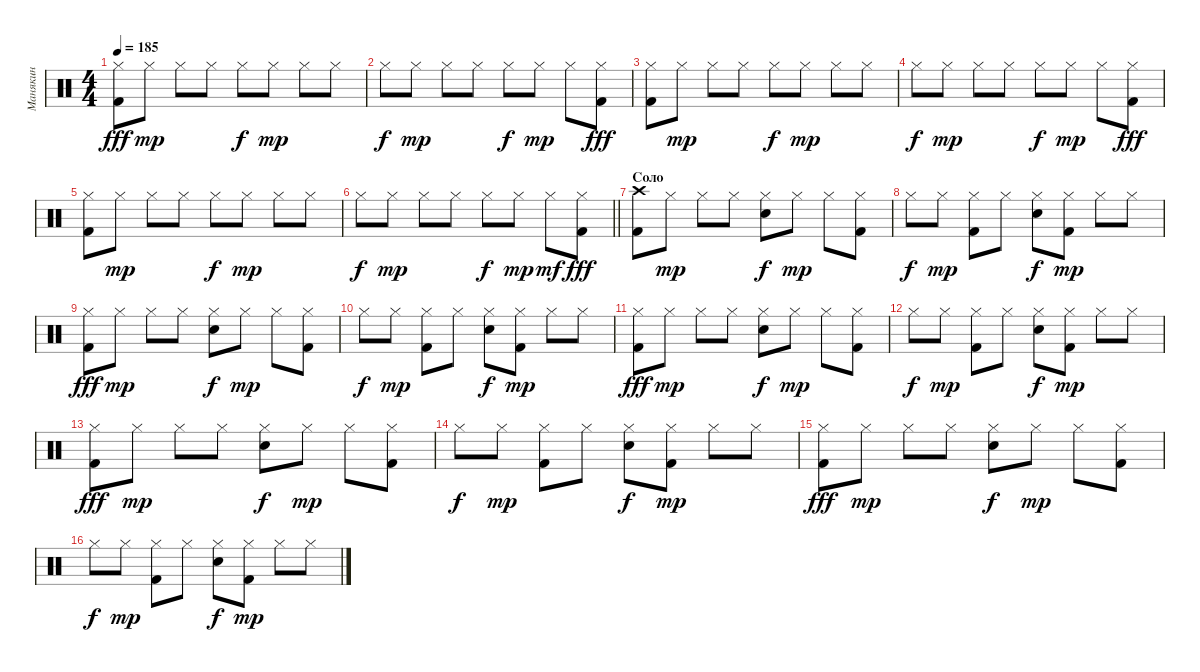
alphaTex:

\track ("Манякин" "Манякин") {instrument percussion}
\staff {score}
\articulation defaults
\ts (4 4)
\tempo 185
\clef neutral
\ks c
("Hi-Hat (closed)" "Kick (hit) 2").8{dy fff} "Hi-Hat (closed)".8{dy mp} "Hi-Hat (closed)".8 "Hi-Hat (closed)".8 "Hi-Hat (closed)".8{dy f} "Hi-Hat (closed)".8{dy mp} "Hi-Hat (closed)".8 "Hi-Hat (closed)".8 |
"Hi-Hat (closed)".8{dy f} "Hi-Hat (closed)".8{dy mp} "Hi-Hat (closed)".8 "Hi-Hat (closed)".8 "Hi-Hat (closed)".8{dy f} "Hi-Hat (closed)".8{dy mp} "Hi-Hat (closed)".8 ("Hi-Hat (closed)" "Kick (hit) 2").8{dy fff} |
("Hi-Hat (closed)" "Kick (hit) 2").8 "Hi-Hat (closed)".8{dy mp} "Hi-Hat (closed)".8 "Hi-Hat (closed)".8 "Hi-Hat (closed)".8{dy f} "Hi-Hat (closed)".8{dy mp} "Hi-Hat (closed)".8 "Hi-Hat (closed)".8 |
"Hi-Hat (closed)".8{dy f} "Hi-Hat (closed)".8{dy mp} "Hi-Hat (closed)".8 "Hi-Hat (closed)".8 "Hi-Hat (closed)".8{dy f} "Hi-Hat (closed)".8{dy mp} "Hi-Hat (closed)".8 ("Hi-Hat (closed)" "Kick (hit) 2").8{dy fff} |
("Hi-Hat (closed)" "Kick (hit) 2").8 "Hi-Hat (closed)".8{dy mp} "Hi-Hat (closed)".8 "Hi-Hat (closed)".8 "Hi-Hat (closed)".8{dy f} "Hi-Hat (closed)".8{dy mp} "Hi-Hat (closed)".8 "Hi-Hat (closed)".8 |
\barLineRight lightlight "Hi-Hat (closed)".8{dy f} "Hi-Hat (closed)".8{dy mp} "Hi-Hat (closed)".8 "Hi-Hat (closed)".8 "Hi-Hat (closed)".8{dy f} "Hi-Hat (closed)".8{dy mp} "Hi-Hat (closed)".8{dy mf}
("Hi-Hat (closed)" "Kick (hit) 2").8{dy fff} |
\section ("" "Соло")
("Crash high (hit)" "Kick (hit) 2").8 "Hi-Hat (closed)".8{dy mp} "Hi-Hat (closed)".8 "Hi-Hat (closed)".8 ("Hi-Hat (closed)" "Electric Snare (hit)").8{dy f} "Hi-Hat (closed)".8{dy mp} "Hi-Hat (closed)".8 ("Hi-Hat (closed)" "Kick (hit) 2").8 |
"Hi-Hat (closed)".8{dy f} "Hi-Hat (closed)".8{dy mp} ("Hi-Hat (closed)" "Kick (hit) 2").8 "Hi-Hat (closed)".8 ("Hi-Hat (closed)" "Electric Snare (hit)").8{dy f} ("Hi-Hat (closed)" "Kick (hit) 2").8{dy mp} "Hi-Hat (closed)".8 "Hi-Hat (closed)".8 |
("Hi-Hat (closed)" "Kick (hit) 2").8{dy fff} "Hi-Hat (closed)".8{dy mp} "Hi-Hat (closed)".8 "Hi-Hat (closed)".8 ("Hi-Hat (closed)" "Electric Snare (hit)").8{dy f} "Hi-Hat (closed)".8{dy mp} "Hi-Hat (closed)".8 ("Hi-Hat (closed)" "Kick (hit) 2").8 |
"Hi-Hat (closed)".8{dy f} "Hi-Hat (closed)".8{dy mp} ("Hi-Hat (closed)" "Kick (hit) 2").8 "Hi-Hat (closed)".8 ("Hi-Hat (closed)" "Electric Snare (hit)").8{dy f} ("Hi-Hat (closed)" "Kick (hit) 2").8{dy mp} "Hi-Hat (closed)".8 "Hi-Hat (closed)".8 |
("Hi-Hat (closed)" "Kick (hit) 2").8{dy fff} "Hi-Hat (closed)".8{dy mp} "Hi-Hat (closed)".8 "Hi-Hat (closed)".8 ("Hi-Hat (closed)" "Electric Snare (hit)").8{dy f} "Hi-Hat (closed)".8{dy mp} "Hi-Hat (closed)".8 ("Hi-Hat (closed)" "Kick (hit) 2").8 |
"Hi-Hat (closed)".8{dy f} "Hi-Hat (closed)".8{dy mp} ("Hi-Hat (closed)" "Kick (hit) 2").8 "Hi-Hat (closed)".8 ("Hi-Hat (closed)" "Electric Snare (hit)").8{dy f} ("Hi-Hat (closed)" "Kick (hit) 2").8{dy mp} "Hi-Hat (closed)".8 "Hi-Hat (closed)".8 |
("Hi-Hat (closed)" "Kick (hit) 2").8{dy fff} "Hi-Hat (closed)".8{dy mp} "Hi-Hat (closed)".8 "Hi-Hat (closed)".8 ("Hi-Hat (closed)" "Electric Snare (hit)").8{dy f} "Hi-Hat (closed)".8{dy mp} "Hi-Hat (closed)".8 ("Hi-Hat (closed)" "Kick (hit) 2").8 |
"Hi-Hat (closed)".8{dy f} "Hi-Hat (closed)".8{dy mp} ("Hi-Hat (closed)" "Kick (hit) 2").8 "Hi-Hat (closed)".8 ("Hi-Hat (closed)" "Electric Snare (hit)").8{dy f} ("Hi-Hat (closed)" "Kick (hit) 2").8{dy mp} "Hi-Hat (closed)".8 "Hi-Hat (closed)".8 |
("Hi-Hat (closed)" "Kick (hit) 2").8{dy fff} "Hi-Hat (closed)".8{dy mp} "Hi-Hat (closed)".8 "Hi-Hat (closed)".8 ("Hi-Hat (closed)" "Electric Snare (hit)").8{dy f} "Hi-Hat (closed)".8{dy mp} "Hi-Hat (closed)".8 ("Hi-Hat (closed)" "Kick (hit) 2").8 |
"Hi-Hat (closed)".8{dy f} "Hi-Hat (closed)".8{dy mp} ("Hi-Hat (closed)" "Kick (hit) 2").8 "Hi-Hat (closed)".8 ("Hi-Hat (closed)" "Electric Snare (hit)").8{dy f} ("Hi-Hat (closed)" "Kick (hit) 2").8{dy mp} "Hi-Hat (closed)".8 "Hi-Hat (closed)".8
